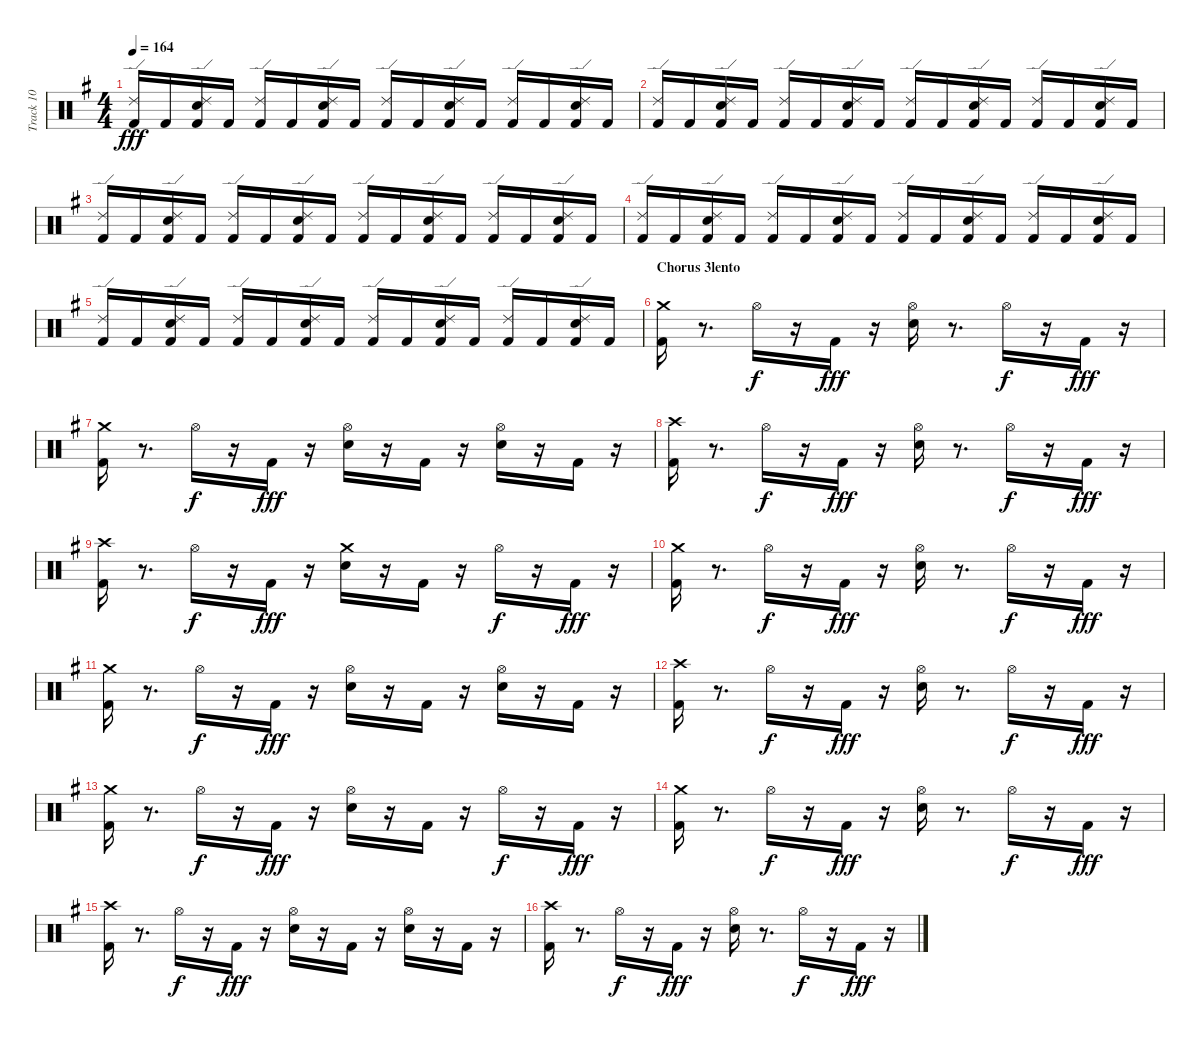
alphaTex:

\track ("Track 10" "Track 10") {instrument percussion}
\staff {score}
\articulation defaults
\ts (4 4)
\tempo 164
\clef neutral
\ks eminor
("Kick (hit) 2" "Ride (edge) 2").16{dy fff} "Kick (hit) 2".16 ("Kick (hit) 2" "Electric Snare (hit)" "Ride (edge) 2").16 "Kick (hit) 2".16 ("Kick (hit) 2" "Ride (edge) 2").16 "Kick (hit) 2".16 ("Electric Snare (hit)" "Kick (hit) 2" "Ride (edge) 2").16 "Kick (hit) 2".16 ("Kick (hit) 2" "Ride (edge) 2").16 "Kick (hit) 2".16 ("Electric Snare (hit)" "Kick (hit) 2" "Ride (edge) 2").16 "Kick (hit) 2".16 ("Kick (hit) 2" "Ride (edge) 2").16 "Kick (hit) 2".16 ("Electric Snare (hit)" "Kick (hit) 2" "Ride (edge) 2").16 "Kick (hit) 2".16 |
("Kick (hit) 2" "Ride (edge) 2").16 "Kick (hit) 2".16 ("Kick (hit) 2" "Electric Snare (hit)" "Ride (edge) 2").16 "Kick (hit) 2".16 ("Kick (hit) 2" "Ride (edge) 2").16 "Kick (hit) 2".16 ("Electric Snare (hit)" "Kick (hit) 2" "Ride (edge) 2").16 "Kick (hit) 2".16 ("Kick (hit) 2" "Ride (edge) 2").16 "Kick (hit) 2".16 ("Electric Snare (hit)" "Kick (hit) 2" "Ride (edge) 2").16 "Kick (hit) 2".16 ("Kick (hit) 2" "Ride (edge) 2").16 "Kick (hit) 2".16 ("Electric Snare (hit)" "Kick (hit) 2" "Ride (edge) 2").16 "Kick (hit) 2".16 |
("Kick (hit) 2" "Ride (edge) 2").16 "Kick (hit) 2".16 ("Kick (hit) 2" "Electric Snare (hit)" "Ride (edge) 2").16 "Kick (hit) 2".16 ("Kick (hit) 2" "Ride (edge) 2").16 "Kick (hit) 2".16 ("Electric Snare (hit)" "Kick (hit) 2" "Ride (edge) 2").16 "Kick (hit) 2".16 ("Kick (hit) 2" "Ride (edge) 2").16 "Kick (hit) 2".16 ("Electric Snare (hit)" "Kick (hit) 2" "Ride (edge) 2").16 "Kick (hit) 2".16 ("Kick (hit) 2" "Ride (edge) 2").16 "Kick (hit) 2".16 ("Electric Snare (hit)" "Kick (hit) 2" "Ride (edge) 2").16 "Kick (hit) 2".16 |
("Kick (hit) 2" "Ride (edge) 2").16 "Kick (hit) 2".16 ("Kick (hit) 2" "Electric Snare (hit)" "Ride (edge) 2").16 "Kick (hit) 2".16 ("Kick (hit) 2" "Ride (edge) 2").16 "Kick (hit) 2".16 ("Electric Snare (hit)" "Kick (hit) 2" "Ride (edge) 2").16 "Kick (hit) 2".16 ("Kick (hit) 2" "Ride (edge) 2").16 "Kick (hit) 2".16 ("Electric Snare (hit)" "Kick (hit) 2" "Ride (edge) 2").16 "Kick (hit) 2".16 ("Kick (hit) 2" "Ride (edge) 2").16 "Kick (hit) 2".16 ("Electric Snare (hit)" "Kick (hit) 2" "Ride (edge) 2").16 "Kick (hit) 2".16 |
("Kick (hit) 2" "Ride (edge) 2").16 "Kick (hit) 2".16 ("Kick (hit) 2" "Electric Snare (hit)" "Ride (edge) 2").16 "Kick (hit) 2".16 ("Kick (hit) 2" "Ride (edge) 2").16 "Kick (hit) 2".16 ("Electric Snare (hit)" "Kick (hit) 2" "Ride (edge) 2").16 "Kick (hit) 2".16 ("Kick (hit) 2" "Ride (edge) 2").16 "Kick (hit) 2".16 ("Electric Snare (hit)" "Kick (hit) 2" "Ride (edge) 2").16 "Kick (hit) 2".16 ("Kick (hit) 2" "Ride (edge) 2").16 "Kick (hit) 2".16 ("Electric Snare (hit)" "Kick (hit) 2" "Ride (edge) 2").16 "Kick (hit) 2".16 |
\section ("" "Chorus 3lento")
("Kick (hit) 2" "Crash medium (hit)").16 r.8{d} "Hi-Hat (open)".16{dy f} r.16 "Kick (hit) 2".16{dy fff} r.16 ("Electric Snare (hit)" "Hi-Hat (open)").16 r.8{d} "Hi-Hat (open)".16{dy f} r.16 "Kick (hit) 2".16{dy fff} r.16 |
("Kick (hit) 2" "Crash medium (hit)").16 r.8{d} "Hi-Hat (open)".16{dy f} r.16 "Kick (hit) 2".16{dy fff} r.16 ("Electric Snare (hit)" "Hi-Hat (open)").16 r.16 "Kick (hit) 2".16 r.16 ("Electric Snare (hit)" "Hi-Hat (open)").16 r.16 "Kick (hit) 2".16 r.16 |
("Kick (hit) 2" "Crash high (hit)").16 r.8{d} "Hi-Hat (open)".16{dy f} r.16 "Kick (hit) 2".16{dy fff} r.16 ("Electric Snare (hit)" "Hi-Hat (open)").16 r.8{d} "Hi-Hat (open)".16{dy f} r.16 "Kick (hit) 2".16{dy fff} r.16 |
("Kick (hit) 2" "Crash high (hit)").16 r.8{d} "Hi-Hat (open)".16{dy f} r.16 "Kick (hit) 2".16{dy fff} r.16 ("Electric Snare (hit)" "Crash medium (hit)").16 r.16 "Kick (hit) 2".16 r.16 "Hi-Hat (open)".16{dy f} r.16 "Kick (hit) 2".16{dy fff} r.16 |
("Kick (hit) 2" "Crash medium (hit)").16 r.8{d} "Hi-Hat (open)".16{dy f} r.16 "Kick (hit) 2".16{dy fff} r.16 ("Electric Snare (hit)" "Hi-Hat (open)").16 r.8{d} "Hi-Hat (open)".16{dy f} r.16 "Kick (hit) 2".16{dy fff} r.16 |
("Kick (hit) 2" "Crash medium (hit)").16 r.8{d} "Hi-Hat (open)".16{dy f} r.16 "Kick (hit) 2".16{dy fff} r.16 ("Electric Snare (hit)" "Hi-Hat (open)").16 r.16 "Kick (hit) 2".16 r.16 ("Electric Snare (hit)" "Hi-Hat (open)").16 r.16 "Kick (hit) 2".16 r.16 |
("Kick (hit) 2" "Crash high (hit)").16 r.8{d} "Hi-Hat (open)".16{dy f} r.16 "Kick (hit) 2".16{dy fff} r.16 ("Electric Snare (hit)" "Hi-Hat (open)").16 r.8{d} "Hi-Hat (open)".16{dy f} r.16 "Kick (hit) 2".16{dy fff} r.16 |
("Kick (hit) 2" "Crash medium (hit)").16 r.8{d} "Hi-Hat (open)".16{dy f} r.16 "Kick (hit) 2".16{dy fff} r.16 ("Electric Snare (hit)" "Hi-Hat (open)").16 r.16 "Kick (hit) 2".16 r.16 "Hi-Hat (open)".16{dy f} r.16 "Kick (hit) 2".16{dy fff} r.16 |
("Kick (hit) 2" "Crash medium (hit)").16 r.8{d} "Hi-Hat (open)".16{dy f} r.16 "Kick (hit) 2".16{dy fff} r.16 ("Electric Snare (hit)" "Hi-Hat (open)").16 r.8{d} "Hi-Hat (open)".16{dy f} r.16 "Kick (hit) 2".16{dy fff} r.16 |
("Kick (hit) 2" "Crash high (hit)").16 r.8{d} "Hi-Hat (open)".16{dy f} r.16 "Kick (hit) 2".16{dy fff} r.16 ("Electric Snare (hit)" "Hi-Hat (open)").16 r.16 "Kick (hit) 2".16 r.16 ("Electric Snare (hit)" "Hi-Hat (open)").16 r.16 "Kick (hit) 2".16 r.16 |
("Kick (hit) 2" "Crash high (hit)").16 r.8{d} "Hi-Hat (open)".16{dy f} r.16 "Kick (hit) 2".16{dy fff} r.16 ("Electric Snare (hit)" "Hi-Hat (open)").16 r.8{d} "Hi-Hat (open)".16{dy f} r.16 "Kick (hit) 2".16{dy fff} r.16
